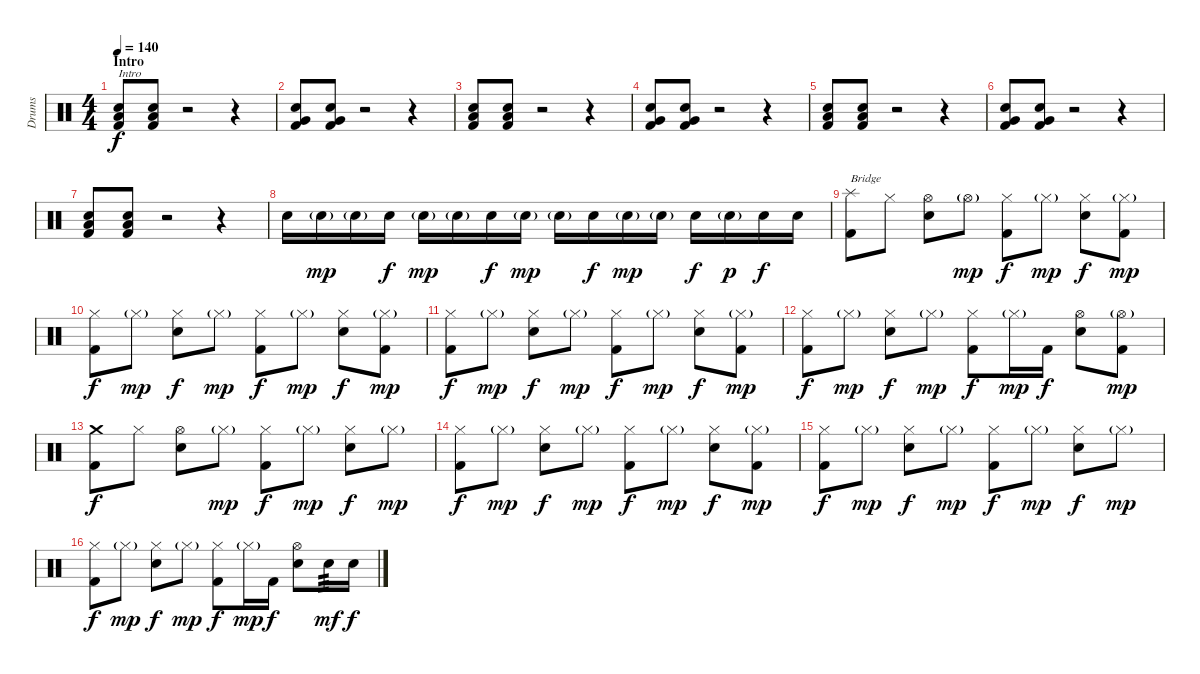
\track ("Drums" "Drums") {instrument percussion}
\staff {score}
\articulation defaults
\ts (4 4)
\section ("" "Intro")
\tempo 140
\clef neutral
\ks c
("Low Floor Tom (hit)" "Snare (hit) 2" "Kick (hit) 2").8{txt "Intro" dy f volume 13} ("Low Floor Tom (hit)" "Snare (hit) 2" "Kick (hit) 2").8 r.2 r.4 |
("Very Low Tom (hit)" "Snare (hit) 2" "Kick (hit) 2").8 ("Very Low Tom (hit)" "Snare (hit) 2" "Kick (hit) 2").8 r.2 r.4 |
("Low Floor Tom (hit)" "Snare (hit) 2" "Kick (hit) 2").8 ("Low Floor Tom (hit)" "Snare (hit) 2" "Kick (hit) 2").8 r.2 r.4 |
("Very Low Tom (hit)" "Snare (hit) 2" "Kick (hit) 2").8 ("Very Low Tom (hit)" "Snare (hit) 2" "Kick (hit) 2").8 r.2 r.4 |
("Low Floor Tom (hit)" "Snare (hit) 2" "Kick (hit) 2").8 ("Low Floor Tom (hit)" "Snare (hit) 2" "Kick (hit) 2").8 r.2 r.4 |
("Very Low Tom (hit)" "Snare (hit) 2" "Kick (hit) 2").8 ("Very Low Tom (hit)" "Snare (hit) 2" "Kick (hit) 2").8 r.2 r.4 |
("Low Floor Tom (hit)" "Snare (hit) 2" "Kick (hit) 2").8 ("Low Floor Tom (hit)" "Snare (hit) 2" "Kick (hit) 2").8 r.2 r.4 |
"Snare (hit) 2".16 "Snare (hit) 2"{g}.16{dy mp} "Snare (hit) 2"{g}.16 "Snare (hit) 2".16{dy f} "Snare (hit) 2"{g}.16{dy mp} "Snare (hit) 2"{g}.16 "Snare (hit) 2".16{dy f} "Snare (hit) 2"{g}.16{dy mp} "Snare (hit) 2"{g}.16 "Snare (hit) 2".16{dy f} "Snare (hit) 2"{g}.16{dy mp} "Snare (hit) 2"{g}.16 "Snare (hit) 2".16{dy f} "Snare (hit) 2"{g}.16{dy p} "Snare (hit) 2".16{dy f} "Snare (hit) 2".16 |
("Splash (hit)" "Kick (hit) 2").8{txt "Bridge"} "Hi-Hat (closed)".8 ("Hi-Hat (open)" "Snare (hit) 2").8 "Hi-Hat (open)"{g}.8{dy mp} ("Hi-Hat (closed)" "Kick (hit) 2").8{dy f} "Hi-Hat (closed)"{g}.8{dy mp} ("Hi-Hat (closed)" "Snare (hit) 2").8{dy f} ("Hi-Hat (closed)"{g} "Kick (hit) 2").8{dy mp} |
("Hi-Hat (closed)" "Kick (hit) 2").8{dy f} "Hi-Hat (closed)"{g}.8{dy mp} ("Hi-Hat (closed)" "Snare (hit) 2").8{dy f} "Hi-Hat (closed)"{g}.8{dy mp} ("Hi-Hat (closed)" "Kick (hit) 2").8{dy f} "Hi-Hat (closed)"{g}.8{dy mp} ("Hi-Hat (closed)" "Snare (hit) 2").8{dy f} ("Hi-Hat (closed)"{g} "Kick (hit) 2").8{dy mp} |
("Hi-Hat (closed)" "Kick (hit) 2").8{dy f} "Hi-Hat (closed)"{g}.8{dy mp} ("Hi-Hat (closed)" "Snare (hit) 2").8{dy f} "Hi-Hat (closed)"{g}.8{dy mp} ("Hi-Hat (closed)" "Kick (hit) 2").8{dy f} "Hi-Hat (closed)"{g}.8{dy mp} ("Hi-Hat (closed)" "Snare (hit) 2").8{dy f} ("Hi-Hat (closed)"{g} "Kick (hit) 2").8{dy mp} |
("Hi-Hat (closed)" "Kick (hit) 2").8{dy f} "Hi-Hat (closed)"{g}.8{dy mp} ("Hi-Hat (closed)" "Snare (hit) 2").8{dy f} "Hi-Hat (closed)"{g}.8{dy mp} ("Hi-Hat (closed)" "Kick (hit) 2").8{dy f} "Hi-Hat (closed)"{g}.16{dy mp} "Kick (hit) 2".16{dy f} ("Hi-Hat (open)" "Snare (hit) 2").8 ("Hi-Hat (open)"{g} "Kick (hit) 2").8{dy mp} |
("Crash medium (hit)" "Kick (hit) 2").8{dy f} "Hi-Hat (closed)".8 ("Hi-Hat (open)" "Snare (hit) 2").8 "Hi-Hat (closed)"{g}.8{dy mp} ("Hi-Hat (closed)" "Kick (hit) 2").8{dy f} "Hi-Hat (closed)"{g}.8{dy mp} ("Hi-Hat (closed)" "Snare (hit) 2").8{dy f} "Hi-Hat (closed)"{g}.8{dy mp} |
("Hi-Hat (closed)" "Kick (hit) 2").8{dy f} "Hi-Hat (closed)"{g}.8{dy mp} ("Hi-Hat (closed)" "Snare (hit) 2").8{dy f} "Hi-Hat (closed)"{g}.8{dy mp} ("Hi-Hat (closed)" "Kick (hit) 2").8{dy f} "Hi-Hat (closed)"{g}.8{dy mp} ("Hi-Hat (closed)" "Snare (hit) 2").8{dy f} ("Hi-Hat (closed)"{g} "Kick (hit) 2").8{dy mp} |
("Hi-Hat (closed)" "Kick (hit) 2").8{dy f} "Hi-Hat (closed)"{g}.8{dy mp} ("Hi-Hat (closed)" "Snare (hit) 2").8{dy f} "Hi-Hat (closed)"{g}.8{dy mp} ("Hi-Hat (closed)" "Kick (hit) 2").8{dy f} "Hi-Hat (closed)"{g}.8{dy mp} ("Hi-Hat (closed)" "Snare (hit) 2").8{dy f} "Hi-Hat (closed)"{g}.8{dy mp} |
("Hi-Hat (closed)" "Kick (hit) 2").8{dy f} "Hi-Hat (closed)"{g}.8{dy mp} ("Hi-Hat (closed)" "Snare (hit) 2").8{dy f} "Hi-Hat (closed)"{g}.8{dy mp} ("Hi-Hat (closed)" "Kick (hit) 2").8{dy f} "Hi-Hat (closed)"{g}.16{dy mp} "Kick (hit) 2".16{dy f} ("Hi-Hat (open)" "Snare (hit) 2").8 "Snare (hit) 2".16{tp 3 dy mf} "Snare (hit) 2".16{dy f}
